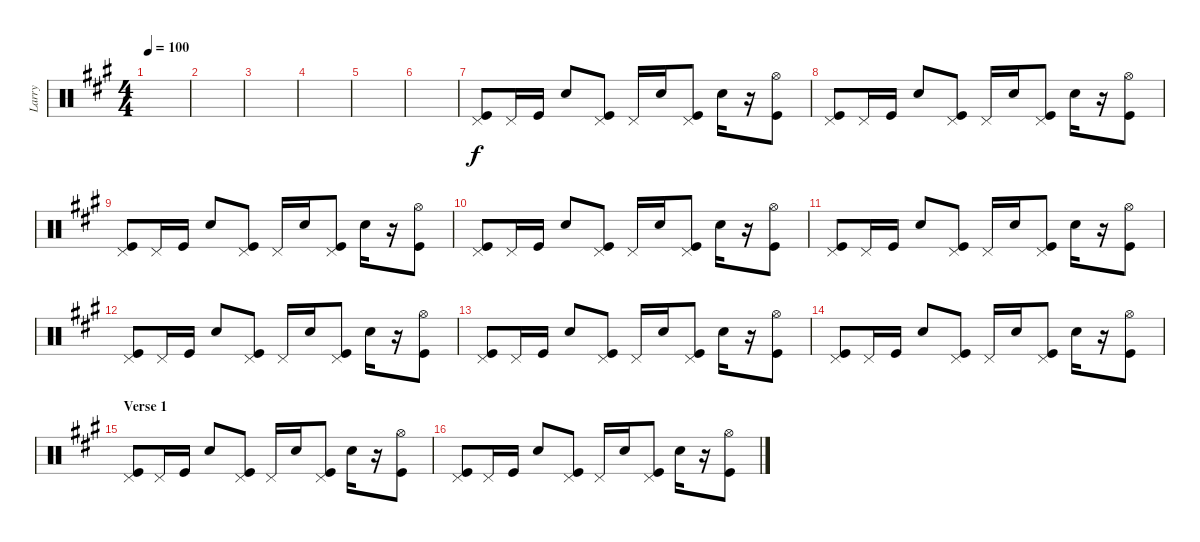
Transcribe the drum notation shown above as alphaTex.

\track ("Larry" "Larry") {instrument percussion}
\staff {score}
\articulation defaults
\ts (4 4)
\tempo 100
\clef neutral
\ks f#minor
|
|
|
|
|
|
("Pedal Hi-Hat (hit)" "Kick (hit)").8 "Pedal Hi-Hat (hit)".16 "Kick (hit)".16 "Snare (hit) 2".8 ("Pedal Hi-Hat (hit)" "Kick (hit)").8 "Pedal Hi-Hat (hit)".16 "Snare (hit) 2".16 ("Pedal Hi-Hat (hit)" "Kick (hit)").8 "Snare (hit) 2".16 r.16 ("Hi-Hat (open)" "Kick (hit)").8 |
("Pedal Hi-Hat (hit)" "Kick (hit)").8 "Pedal Hi-Hat (hit)".16 "Kick (hit)".16 "Snare (hit) 2".8 ("Pedal Hi-Hat (hit)" "Kick (hit)").8 "Pedal Hi-Hat (hit)".16 "Snare (hit) 2".16 ("Pedal Hi-Hat (hit)" "Kick (hit)").8 "Snare (hit) 2".16 r.16 ("Hi-Hat (open)" "Kick (hit)").8 |
("Pedal Hi-Hat (hit)" "Kick (hit)").8 "Pedal Hi-Hat (hit)".16 "Kick (hit)".16 "Snare (hit) 2".8 ("Pedal Hi-Hat (hit)" "Kick (hit)").8 "Pedal Hi-Hat (hit)".16 "Snare (hit) 2".16 ("Pedal Hi-Hat (hit)" "Kick (hit)").8 "Snare (hit) 2".16 r.16 ("Hi-Hat (open)" "Kick (hit)").8 |
("Pedal Hi-Hat (hit)" "Kick (hit)").8 "Pedal Hi-Hat (hit)".16 "Kick (hit)".16 "Snare (hit) 2".8 ("Pedal Hi-Hat (hit)" "Kick (hit)").8 "Pedal Hi-Hat (hit)".16 "Snare (hit) 2".16 ("Pedal Hi-Hat (hit)" "Kick (hit)").8 "Snare (hit) 2".16 r.16 ("Hi-Hat (open)" "Kick (hit)").8 |
("Pedal Hi-Hat (hit)" "Kick (hit)").8 "Pedal Hi-Hat (hit)".16 "Kick (hit)".16 "Snare (hit) 2".8 ("Pedal Hi-Hat (hit)" "Kick (hit)").8 "Pedal Hi-Hat (hit)".16 "Snare (hit) 2".16 ("Pedal Hi-Hat (hit)" "Kick (hit)").8 "Snare (hit) 2".16 r.16 ("Hi-Hat (open)" "Kick (hit)").8 |
("Pedal Hi-Hat (hit)" "Kick (hit)").8 "Pedal Hi-Hat (hit)".16 "Kick (hit)".16 "Snare (hit) 2".8 ("Pedal Hi-Hat (hit)" "Kick (hit)").8 "Pedal Hi-Hat (hit)".16 "Snare (hit) 2".16 ("Pedal Hi-Hat (hit)" "Kick (hit)").8 "Snare (hit) 2".16 r.16 ("Hi-Hat (open)" "Kick (hit)").8 |
("Pedal Hi-Hat (hit)" "Kick (hit)").8 "Pedal Hi-Hat (hit)".16 "Kick (hit)".16 "Snare (hit) 2".8 ("Pedal Hi-Hat (hit)" "Kick (hit)").8 "Pedal Hi-Hat (hit)".16 "Snare (hit) 2".16 ("Pedal Hi-Hat (hit)" "Kick (hit)").8 "Snare (hit) 2".16 r.16 ("Hi-Hat (open)" "Kick (hit)").8 |
("Pedal Hi-Hat (hit)" "Kick (hit)").8 "Pedal Hi-Hat (hit)".16 "Kick (hit)".16 "Snare (hit) 2".8 ("Pedal Hi-Hat (hit)" "Kick (hit)").8 "Pedal Hi-Hat (hit)".16 "Snare (hit) 2".16 ("Pedal Hi-Hat (hit)" "Kick (hit)").8 "Snare (hit) 2".16 r.16 ("Hi-Hat (open)" "Kick (hit)").8 |
\section ("" "Verse 1")
("Pedal Hi-Hat (hit)" "Kick (hit)").8 "Pedal Hi-Hat (hit)".16 "Kick (hit)".16 "Snare (hit) 2".8 ("Pedal Hi-Hat (hit)" "Kick (hit)").8 "Pedal Hi-Hat (hit)".16 "Snare (hit) 2".16 ("Pedal Hi-Hat (hit)" "Kick (hit)").8 "Snare (hit) 2".16 r.16 ("Hi-Hat (open)" "Kick (hit)").8 |
("Pedal Hi-Hat (hit)" "Kick (hit)").8 "Pedal Hi-Hat (hit)".16 "Kick (hit)".16 "Snare (hit) 2".8 ("Pedal Hi-Hat (hit)" "Kick (hit)").8 "Pedal Hi-Hat (hit)".16 "Snare (hit) 2".16 ("Pedal Hi-Hat (hit)" "Kick (hit)").8 "Snare (hit) 2".16 r.16 ("Hi-Hat (open)" "Kick (hit)").8
